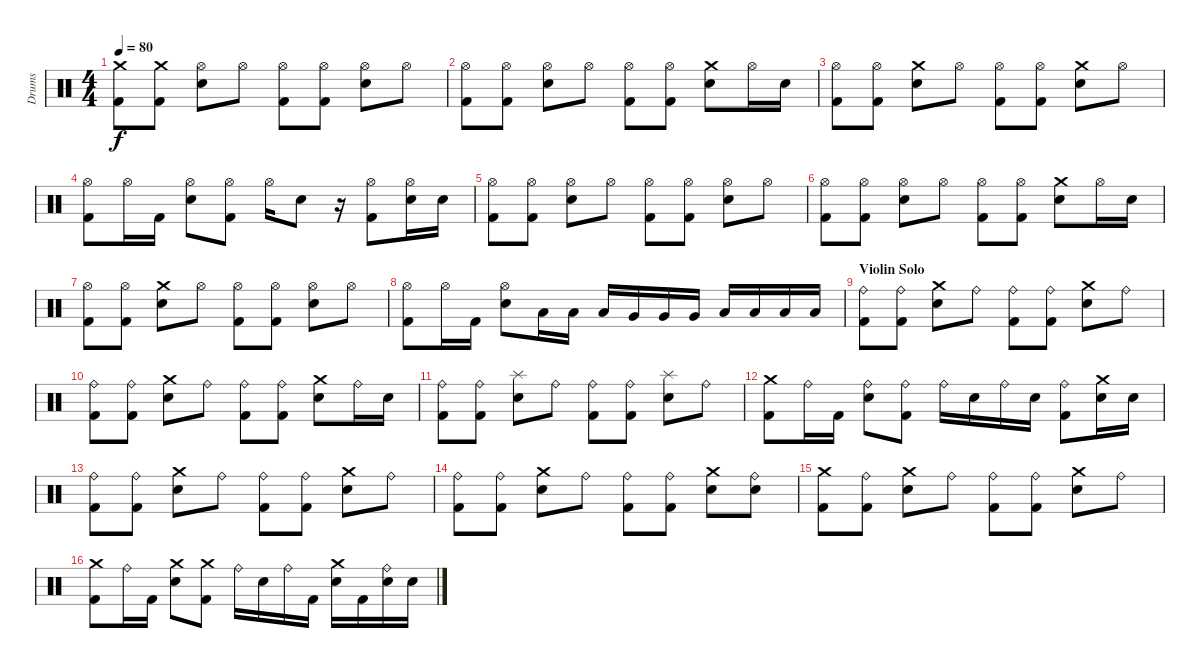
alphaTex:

\track ("Drums" "Drums") {instrument percussion}
\staff {score}
\articulation defaults
\ts (4 4)
\tempo 80
\clef neutral
\ks c
("Crash medium (hit)" "Kick (hit) 2").8{dy f} ("Crash medium (hit)" "Kick (hit) 2").8 ("Hi-Hat (open)" "Snare (hit) 2").8 "Hi-Hat (open)".8 ("Hi-Hat (open)" "Kick (hit) 2").8 ("Hi-Hat (open)" "Kick (hit) 2").8 ("Hi-Hat (open)" "Snare (hit) 2").8 "Hi-Hat (open)".8 |
("Hi-Hat (open)" "Kick (hit) 2").8 ("Hi-Hat (open)" "Kick (hit) 2").8 ("Hi-Hat (open)" "Snare (hit) 2").8 "Hi-Hat (open)".8 ("Hi-Hat (open)" "Kick (hit) 2").8 ("Hi-Hat (open)" "Kick (hit) 2").8 ("Crash medium (hit)" "Snare (hit) 2").8 "Hi-Hat (open)".16 "Snare (hit) 2".16 |
("Hi-Hat (open)" "Kick (hit) 2").8 ("Hi-Hat (open)" "Kick (hit) 2").8 ("Crash medium (hit)" "Snare (hit) 2").8 "Hi-Hat (open)".8 ("Hi-Hat (open)" "Kick (hit) 2").8 ("Hi-Hat (open)" "Kick (hit) 2").8 ("Crash medium (hit)" "Snare (hit) 2").8 "Hi-Hat (open)".8 |
("Hi-Hat (open)" "Kick (hit) 2").8 "Hi-Hat (open)".16 "Kick (hit) 2".16 ("Hi-Hat (open)" "Snare (hit) 2").8 ("Hi-Hat (open)" "Kick (hit) 2").8 "Hi-Hat (open)".16 "Snare (hit) 2".8 r.16 ("Hi-Hat (open)" "Kick (hit) 2").8 ("Hi-Hat (open)" "Snare (hit) 2").16 "Snare (hit) 2".16 |
("Hi-Hat (open)" "Kick (hit) 2").8 ("Hi-Hat (open)" "Kick (hit) 2").8 ("Hi-Hat (open)" "Snare (hit) 2").8 "Hi-Hat (open)".8 ("Hi-Hat (open)" "Kick (hit) 2").8 ("Hi-Hat (open)" "Kick (hit) 2").8 ("Hi-Hat (open)" "Snare (hit) 2").8 "Hi-Hat (open)".8 |
("Hi-Hat (open)" "Kick (hit) 2").8 ("Hi-Hat (open)" "Kick (hit) 2").8 ("Hi-Hat (open)" "Snare (hit) 2").8 "Hi-Hat (open)".8 ("Hi-Hat (open)" "Kick (hit) 2").8 ("Hi-Hat (open)" "Kick (hit) 2").8 ("Crash medium (hit)" "Snare (hit) 2").8 "Hi-Hat (open)".16 "Snare (hit) 2".16 |
("Hi-Hat (open)" "Kick (hit) 2").8 ("Hi-Hat (open)" "Kick (hit) 2").8 ("Crash medium (hit)" "Snare (hit) 2").8 "Hi-Hat (open)".8 ("Hi-Hat (open)" "Kick (hit) 2").8 ("Hi-Hat (open)" "Kick (hit) 2").8 ("Hi-Hat (open)" "Snare (hit) 2").8 "Hi-Hat (open)".8 |
("Hi-Hat (open)" "Kick (hit) 2").8 "Hi-Hat (open)".16 "Kick (hit) 2".16 ("Hi-Hat (open)" "Snare (hit) 2").8 "Low Tom (hit)".16 "Low Tom (hit)".16 "Low Tom (hit)".16 "Very Low Tom (hit)".16 "Very Low Tom (hit)".16 "Very Low Tom (hit)".16 "Low Floor Tom (hit)".16 "Low Floor Tom (hit)".16 "Low Floor Tom (hit)".16 "Low Floor Tom (hit)".16 |
\section ("" "Violin Solo")
("Ride (bell)" "Kick (hit) 2").8 ("Ride (bell)" "Kick (hit) 2").8 ("Crash medium (hit)" "Snare (hit) 2").8 "Ride (bell)".8 ("Ride (bell)" "Kick (hit) 2").8 ("Ride (bell)" "Kick (hit) 2").8 ("Crash medium (hit)" "Snare (hit) 2").8 "Ride (bell)".8 |
("Ride (bell)" "Kick (hit) 2").8 ("Ride (bell)" "Kick (hit) 2").8 ("Crash medium (hit)" "Snare (hit) 2").8 "Ride (bell)".8 ("Ride (bell)" "Kick (hit) 2").8 ("Ride (bell)" "Kick (hit) 2").8 ("Crash medium (hit)" "Snare (hit) 2").8 "Ride (bell)".16 "Snare (hit) 2".16 |
("Ride (bell)" "Kick (hit) 2").8 ("Ride (bell)" "Kick (hit) 2").8 ("Splash (hit)" "Snare (hit) 2").8 "Ride (bell)".8 ("Ride (bell)" "Kick (hit) 2").8 ("Ride (bell)" "Kick (hit) 2").8 ("Splash (hit)" "Snare (hit) 2").8 "Ride (bell)".8 |
("Crash medium (hit)" "Kick (hit) 2").8 "Ride (bell)".16 "Kick (hit) 2".16 ("Ride (bell)" "Snare (hit) 2").8 ("Ride (bell)" "Kick (hit) 2").8 "Ride (bell)".16 "Snare (hit) 2".16 "Ride (bell)".16 "Snare (hit) 2".16 ("Ride (bell)" "Kick (hit) 2").8 ("Crash medium (hit)" "Snare (hit) 2").16 "Snare (hit) 2".16 |
("Ride (bell)" "Kick (hit) 2").8 ("Ride (bell)" "Kick (hit) 2").8 ("Crash medium (hit)" "Snare (hit) 2").8 "Ride (bell)".8 ("Ride (bell)" "Kick (hit) 2").8 ("Ride (bell)" "Kick (hit) 2").8 ("Crash medium (hit)" "Snare (hit) 2").8 "Ride (bell)".8 |
("Ride (bell)" "Kick (hit) 2").8 ("Ride (bell)" "Kick (hit) 2").8 ("Crash medium (hit)" "Snare (hit) 2").8 "Ride (bell)".8 ("Ride (bell)" "Kick (hit) 2").8 ("Ride (bell)" "Kick (hit) 2").8 ("Crash medium (hit)" "Snare (hit) 2").8 ("Ride (bell)" "Snare (hit) 2").8 |
("Crash medium (hit)" "Kick (hit) 2").8 ("Ride (bell)" "Kick (hit) 2").8 ("Crash medium (hit)" "Snare (hit) 2").8 "Ride (bell)".8 ("Ride (bell)" "Kick (hit) 2").8 ("Ride (bell)" "Kick (hit) 2").8 ("Crash medium (hit)" "Snare (hit) 2").8 "Ride (bell)".8 |
("Crash medium (hit)" "Kick (hit) 2").8 "Ride (bell)".16 "Kick (hit) 2".16 ("Crash medium (hit)" "Snare (hit) 2").8 ("Crash medium (hit)" "Kick (hit) 2").8 "Ride (bell)".16 "Snare (hit) 2".16 "Ride (bell)".16 "Kick (hit) 2".16 ("Crash medium (hit)" "Snare (hit) 2").16 "Kick (hit) 2".16 ("Ride (bell)" "Snare (hit) 2").16 "Snare (hit) 2".16
